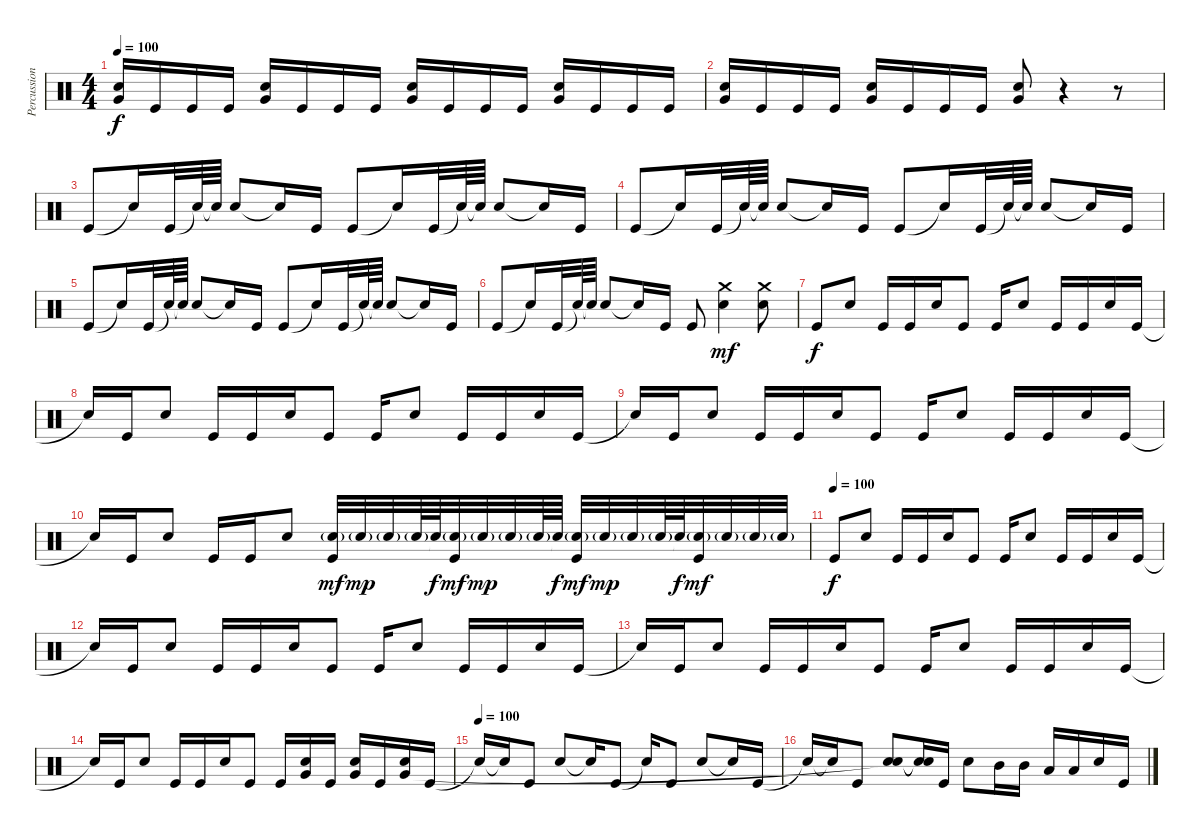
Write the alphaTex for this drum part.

\track ("Percussion" "Percussion") {instrument percussion}
\staff {score}
\articulation defaults
\ts (4 4)
\tempo 100
\clef neutral
\ks c
("Electric Snare (hit)" "Very Low Tom (hit)").16{dy f} "Kick (hit)".16 "Kick (hit)".16 "Kick (hit)".16 ("Electric Snare (hit)" "Very Low Tom (hit)").16 "Kick (hit)".16 "Kick (hit)".16 "Kick (hit)".16 ("Electric Snare (hit)" "Very Low Tom (hit)").16 "Kick (hit)".16 "Kick (hit)".16 "Kick (hit)".16 ("Electric Snare (hit)" "Very Low Tom (hit)").16 "Kick (hit)".16 "Kick (hit)".16 "Kick (hit)".16 |
("Electric Snare (hit)" "Very Low Tom (hit)").16 "Kick (hit)".16 "Kick (hit)".16 "Kick (hit)".16 ("Electric Snare (hit)" "Very Low Tom (hit)").16 "Kick (hit)".16 "Kick (hit)".16 "Kick (hit)".16 ("Electric Snare (hit)" "Very Low Tom (hit)").8 r.4 r.8 |
"Kick (hit)".8 "Snare (hit)"{t}.16 "Kick (hit)".32 "Snare (hit)"{t}.64 "Snare (hit)"{t}.64 "Electric Snare (hit)".8 "Snare (hit)"{t}.16 "Kick (hit)".16 "Kick (hit)".8 "Snare (hit)"{t}.16 "Kick (hit)".32 "Snare (hit)"{t}.64 "Snare (hit)"{t}.64 "Electric Snare (hit)".8 "Snare (hit)"{t}.16 "Kick (hit)".16 |
"Kick (hit)".8 "Snare (hit)"{t}.16 "Kick (hit)".32 "Snare (hit)"{t}.64 "Snare (hit)"{t}.64 "Electric Snare (hit)".8 "Snare (hit)"{t}.16 "Kick (hit)".16 "Kick (hit)".8 "Snare (hit)"{t}.16 "Kick (hit)".32 "Snare (hit)"{t}.64 "Snare (hit)"{t}.64 "Electric Snare (hit)".8 "Snare (hit)"{t}.16 "Kick (hit)".16 |
"Kick (hit)".8 "Snare (hit)"{t}.16 "Kick (hit)".32 "Snare (hit)"{t}.64 "Snare (hit)"{t}.64 "Electric Snare (hit)".8 "Snare (hit)"{t}.16 "Kick (hit)".16 "Kick (hit)".8 "Snare (hit)"{t}.16 "Kick (hit)".32 "Snare (hit)"{t}.64 "Snare (hit)"{t}.64 "Electric Snare (hit)".8 "Snare (hit)"{t}.16 "Kick (hit)".16 |
"Kick (hit)".8 "Snare (hit)"{t}.16 "Kick (hit)".32 "Snare (hit)"{t}.64 "Snare (hit)"{t}.64 "Electric Snare (hit)".8 "Snare (hit)"{t}.16 "Kick (hit)".16 "Kick (hit)".8 ("Crash medium (hit)" "Electric Snare (hit)").4{dy mf} ("Crash medium (hit)" "Electric Snare (hit)").8 |
"Kick (hit)".8{dy f} "Electric Snare (hit)".8 "Kick (hit)".16 "Kick (hit)".16 "Electric Snare (hit)".16 "Kick (hit)".8 "Kick (hit)".16 "Electric Snare (hit)".8 "Kick (hit)".16 "Kick (hit)".16 "Electric Snare (hit)".16 "Kick (hit)".16 |
"Snare (hit)"{t}.16 "Kick (hit)".16 "Electric Snare (hit)".8 "Kick (hit)".16 "Kick (hit)".16 "Electric Snare (hit)".16 "Kick (hit)".8 "Kick (hit)".16 "Electric Snare (hit)".8 "Kick (hit)".16 "Kick (hit)".16 "Electric Snare (hit)".16 "Kick (hit)".16 |
"Snare (hit)"{t}.16 "Kick (hit)".16 "Electric Snare (hit)".8 "Kick (hit)".16 "Kick (hit)".16 "Electric Snare (hit)".16 "Kick (hit)".8 "Kick (hit)".16 "Electric Snare (hit)".8 "Kick (hit)".16 "Kick (hit)".16 "Electric Snare (hit)".16 "Kick (hit)".16 |
"Snare (hit)"{t}.16 "Kick (hit)".16 "Electric Snare (hit)".8 "Kick (hit)".16 "Kick (hit)".16 "Electric Snare (hit)".8 ("Electric Snare (hit)"{g} "Kick (hit)").32{dy mf} "Electric Snare (hit)"{g}.32{dy mp} "Electric Snare (hit)"{g}.32 "Electric Snare (hit)"{g}.64 "Snare (hit)"{t}.64{dy f} ("Electric Snare (hit)"{g} "Kick (hit)").32{dy mf} "Electric Snare (hit)"{g}.32{dy mp} "Electric Snare (hit)"{g}.32 "Electric Snare (hit)"{g}.64 "Snare (hit)"{t}.64{dy f} ("Electric Snare (hit)"{g} "Kick (hit)").32{dy mf} "Electric Snare (hit)"{g}.32{dy mp} "Electric Snare (hit)"{g}.32 "Electric Snare (hit)"{g}.64 "Snare (hit)"{t}.64{dy f} ("Electric Snare (hit)"{g} "Kick (hit)").32{dy mf} "Electric Snare (hit)"{g}.32 "Electric Snare (hit)"{g}.32 "Electric Snare (hit)"{g}.32 |
\tempo (100)
"Kick (hit)".8{dy f} "Electric Snare (hit)".8 "Kick (hit)".16 "Kick (hit)".16 "Electric Snare (hit)".16 "Kick (hit)".8 "Kick (hit)".16 "Electric Snare (hit)".8 "Kick (hit)".16 "Kick (hit)".16 "Electric Snare (hit)".16 "Kick (hit)".16 |
"Snare (hit)"{t}.16 "Kick (hit)".16 "Electric Snare (hit)".8 "Kick (hit)".16 "Kick (hit)".16 "Electric Snare (hit)".16 "Kick (hit)".8 "Kick (hit)".16 "Electric Snare (hit)".8 "Kick (hit)".16 "Kick (hit)".16 "Electric Snare (hit)".16 "Kick (hit)".16 |
"Snare (hit)"{t}.16 "Kick (hit)".16 "Electric Snare (hit)".8 "Kick (hit)".16 "Kick (hit)".16 "Electric Snare (hit)".16 "Kick (hit)".8 "Kick (hit)".16 "Electric Snare (hit)".8 "Kick (hit)".16 "Kick (hit)".16 "Electric Snare (hit)".16 "Kick (hit)".16 |
"Snare (hit)"{t}.16 "Kick (hit)".16 "Electric Snare (hit)".8 "Kick (hit)".16 "Kick (hit)".16 "Electric Snare (hit)".16 "Kick (hit)".8 "Kick (hit)".16 ("Electric Snare (hit)" "Very Low Tom (hit)").16 "Kick (hit)".16 ("Electric Snare (hit)" "Very Low Tom (hit)").16 "Kick (hit)".16 ("Electric Snare (hit)" "Very Low Tom (hit)").16 "Kick (hit)".16 |
\tempo (100)
"Snare (hit)"{t}.16 "Snare (hit)"{t}.16 "Kick (hit)".8 "Electric Snare (hit)".8 "Snare (hit)"{t}.16 "Kick (hit)".8 "Snare (hit)"{t}.16 "Kick (hit)".8 "Electric Snare (hit)".8 "Snare (hit)"{t}.16 "Kick (hit)".16 |
"Snare (hit)"{t}.16 "Snare (hit)"{t}.16 "Kick (hit)".8 ("Electric Snare (hit)" "Snare (hit)"{t}).8 ("Snare (hit)"{t} "Snare (hit)"{t}).16 "Kick (hit)".16 "Electric Snare (hit)".8 "Mid Tom (hit)".16 "Mid Tom (hit)".16 "Low Tom (hit)".16 "Low Tom (hit)".16 "Electric Snare (hit)".16 "Kick (hit)".16
